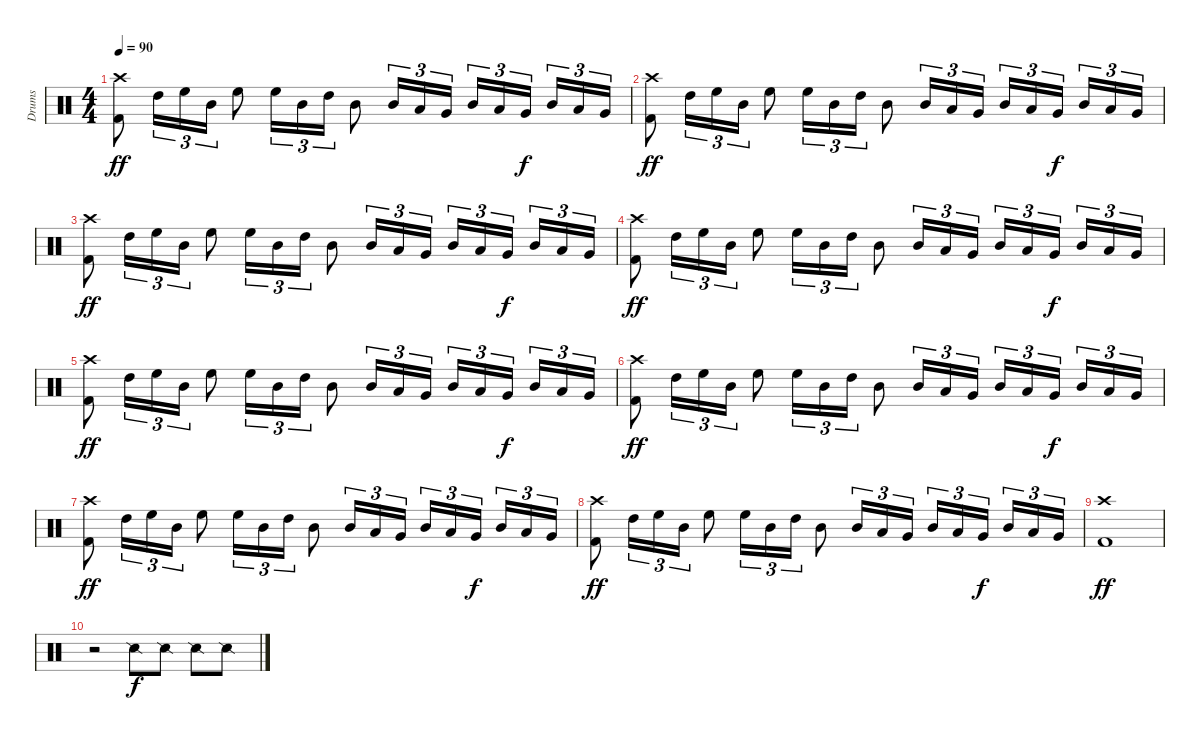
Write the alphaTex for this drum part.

\track ("Drums     " "Drums     ") {instrument percussion}
\staff {score}
\articulation defaults
\ts (4 4)
\tempo 90
\clef neutral
\ks c
("Kick (hit) 2" "Crash high (hit)").8{dy ff} "High Tom (hit)".16{tu (3 2)} "High Floor Tom (hit)".16{tu (3 2)} "Mid Tom (hit)".16{tu (3 2)} "High Floor Tom (hit)".8 "High Floor Tom (hit)".16{tu (3 2)} "Mid Tom (hit)".16{tu (3 2)} "High Tom (hit)".16{tu (3 2)} "Mid Tom (hit)".8 "Mid Tom (hit)".16{tu (3 2)} "Low Tom (hit)".16{tu (3 2)} "Very Low Tom (hit)".16{tu (3 2)} "Mid Tom (hit)".16{tu (3 2)} "Low Tom (hit)".16{tu (3 2)} "Very Low Tom (hit)".16{tu (3 2) dy f} "Mid Tom (hit)".16{tu (3 2)} "Low Tom (hit)".16{tu (3 2)} "Very Low Tom (hit)".16{tu (3 2)} |
("Kick (hit) 2" "Crash high (hit)").8{dy ff} "High Tom (hit)".16{tu (3 2)} "High Floor Tom (hit)".16{tu (3 2)} "Mid Tom (hit)".16{tu (3 2)} "High Floor Tom (hit)".8 "High Floor Tom (hit)".16{tu (3 2)} "Mid Tom (hit)".16{tu (3 2)} "High Tom (hit)".16{tu (3 2)} "Mid Tom (hit)".8 "Mid Tom (hit)".16{tu (3 2)} "Low Tom (hit)".16{tu (3 2)} "Very Low Tom (hit)".16{tu (3 2)} "Mid Tom (hit)".16{tu (3 2)} "Low Tom (hit)".16{tu (3 2)} "Very Low Tom (hit)".16{tu (3 2) dy f} "Mid Tom (hit)".16{tu (3 2)} "Low Tom (hit)".16{tu (3 2)} "Very Low Tom (hit)".16{tu (3 2)} |
("Kick (hit) 2" "Crash high (hit)").8{dy ff} "High Tom (hit)".16{tu (3 2)} "High Floor Tom (hit)".16{tu (3 2)} "Mid Tom (hit)".16{tu (3 2)} "High Floor Tom (hit)".8 "High Floor Tom (hit)".16{tu (3 2)} "Mid Tom (hit)".16{tu (3 2)} "High Tom (hit)".16{tu (3 2)} "Mid Tom (hit)".8 "Mid Tom (hit)".16{tu (3 2)} "Low Tom (hit)".16{tu (3 2)} "Very Low Tom (hit)".16{tu (3 2)} "Mid Tom (hit)".16{tu (3 2)} "Low Tom (hit)".16{tu (3 2)} "Very Low Tom (hit)".16{tu (3 2) dy f} "Mid Tom (hit)".16{tu (3 2)} "Low Tom (hit)".16{tu (3 2)} "Very Low Tom (hit)".16{tu (3 2)} |
("Kick (hit) 2" "Crash high (hit)").8{dy ff} "High Tom (hit)".16{tu (3 2)} "High Floor Tom (hit)".16{tu (3 2)} "Mid Tom (hit)".16{tu (3 2)} "High Floor Tom (hit)".8 "High Floor Tom (hit)".16{tu (3 2)} "Mid Tom (hit)".16{tu (3 2)} "High Tom (hit)".16{tu (3 2)} "Mid Tom (hit)".8 "Mid Tom (hit)".16{tu (3 2)} "Low Tom (hit)".16{tu (3 2)} "Very Low Tom (hit)".16{tu (3 2)} "Mid Tom (hit)".16{tu (3 2)} "Low Tom (hit)".16{tu (3 2)} "Very Low Tom (hit)".16{tu (3 2) dy f} "Mid Tom (hit)".16{tu (3 2)} "Low Tom (hit)".16{tu (3 2)} "Very Low Tom (hit)".16{tu (3 2)} |
("Kick (hit) 2" "Crash high (hit)").8{dy ff} "High Tom (hit)".16{tu (3 2)} "High Floor Tom (hit)".16{tu (3 2)} "Mid Tom (hit)".16{tu (3 2)} "High Floor Tom (hit)".8 "High Floor Tom (hit)".16{tu (3 2)} "Mid Tom (hit)".16{tu (3 2)} "High Tom (hit)".16{tu (3 2)} "Mid Tom (hit)".8 "Mid Tom (hit)".16{tu (3 2)} "Low Tom (hit)".16{tu (3 2)} "Very Low Tom (hit)".16{tu (3 2)} "Mid Tom (hit)".16{tu (3 2)} "Low Tom (hit)".16{tu (3 2)} "Very Low Tom (hit)".16{tu (3 2) dy f} "Mid Tom (hit)".16{tu (3 2)} "Low Tom (hit)".16{tu (3 2)} "Very Low Tom (hit)".16{tu (3 2)} |
("Kick (hit) 2" "Crash high (hit)").8{dy ff} "High Tom (hit)".16{tu (3 2)} "High Floor Tom (hit)".16{tu (3 2)} "Mid Tom (hit)".16{tu (3 2)} "High Floor Tom (hit)".8 "High Floor Tom (hit)".16{tu (3 2)} "Mid Tom (hit)".16{tu (3 2)} "High Tom (hit)".16{tu (3 2)} "Mid Tom (hit)".8 "Mid Tom (hit)".16{tu (3 2)} "Low Tom (hit)".16{tu (3 2)} "Very Low Tom (hit)".16{tu (3 2)} "Mid Tom (hit)".16{tu (3 2)} "Low Tom (hit)".16{tu (3 2)} "Very Low Tom (hit)".16{tu (3 2) dy f} "Mid Tom (hit)".16{tu (3 2)} "Low Tom (hit)".16{tu (3 2)} "Very Low Tom (hit)".16{tu (3 2)} |
("Kick (hit) 2" "Crash high (hit)").8{dy ff} "High Tom (hit)".16{tu (3 2)} "High Floor Tom (hit)".16{tu (3 2)} "Mid Tom (hit)".16{tu (3 2)} "High Floor Tom (hit)".8 "High Floor Tom (hit)".16{tu (3 2)} "Mid Tom (hit)".16{tu (3 2)} "High Tom (hit)".16{tu (3 2)} "Mid Tom (hit)".8 "Mid Tom (hit)".16{tu (3 2)} "Low Tom (hit)".16{tu (3 2)} "Very Low Tom (hit)".16{tu (3 2)} "Mid Tom (hit)".16{tu (3 2)} "Low Tom (hit)".16{tu (3 2)} "Very Low Tom (hit)".16{tu (3 2) dy f} "Mid Tom (hit)".16{tu (3 2)} "Low Tom (hit)".16{tu (3 2)} "Very Low Tom (hit)".16{tu (3 2)} |
("Kick (hit) 2" "Crash high (hit)").8{dy ff} "High Tom (hit)".16{tu (3 2)} "High Floor Tom (hit)".16{tu (3 2)} "Mid Tom (hit)".16{tu (3 2)} "High Floor Tom (hit)".8 "High Floor Tom (hit)".16{tu (3 2)} "Mid Tom (hit)".16{tu (3 2)} "High Tom (hit)".16{tu (3 2)} "Mid Tom (hit)".8 "Mid Tom (hit)".16{tu (3 2)} "Low Tom (hit)".16{tu (3 2)} "Very Low Tom (hit)".16{tu (3 2)} "Mid Tom (hit)".16{tu (3 2)} "Low Tom (hit)".16{tu (3 2)} "Very Low Tom (hit)".16{tu (3 2) dy f} "Mid Tom (hit)".16{tu (3 2)} "Low Tom (hit)".16{tu (3 2)} "Very Low Tom (hit)".16{tu (3 2)} |
("Kick (hit) 2" "Crash high (hit)").1{dy ff} |
r.2 "Snare (side stick) 2".8{dy f} "Snare (side stick) 2".8 "Snare (side stick) 2".8 "Snare (side stick) 2".8
